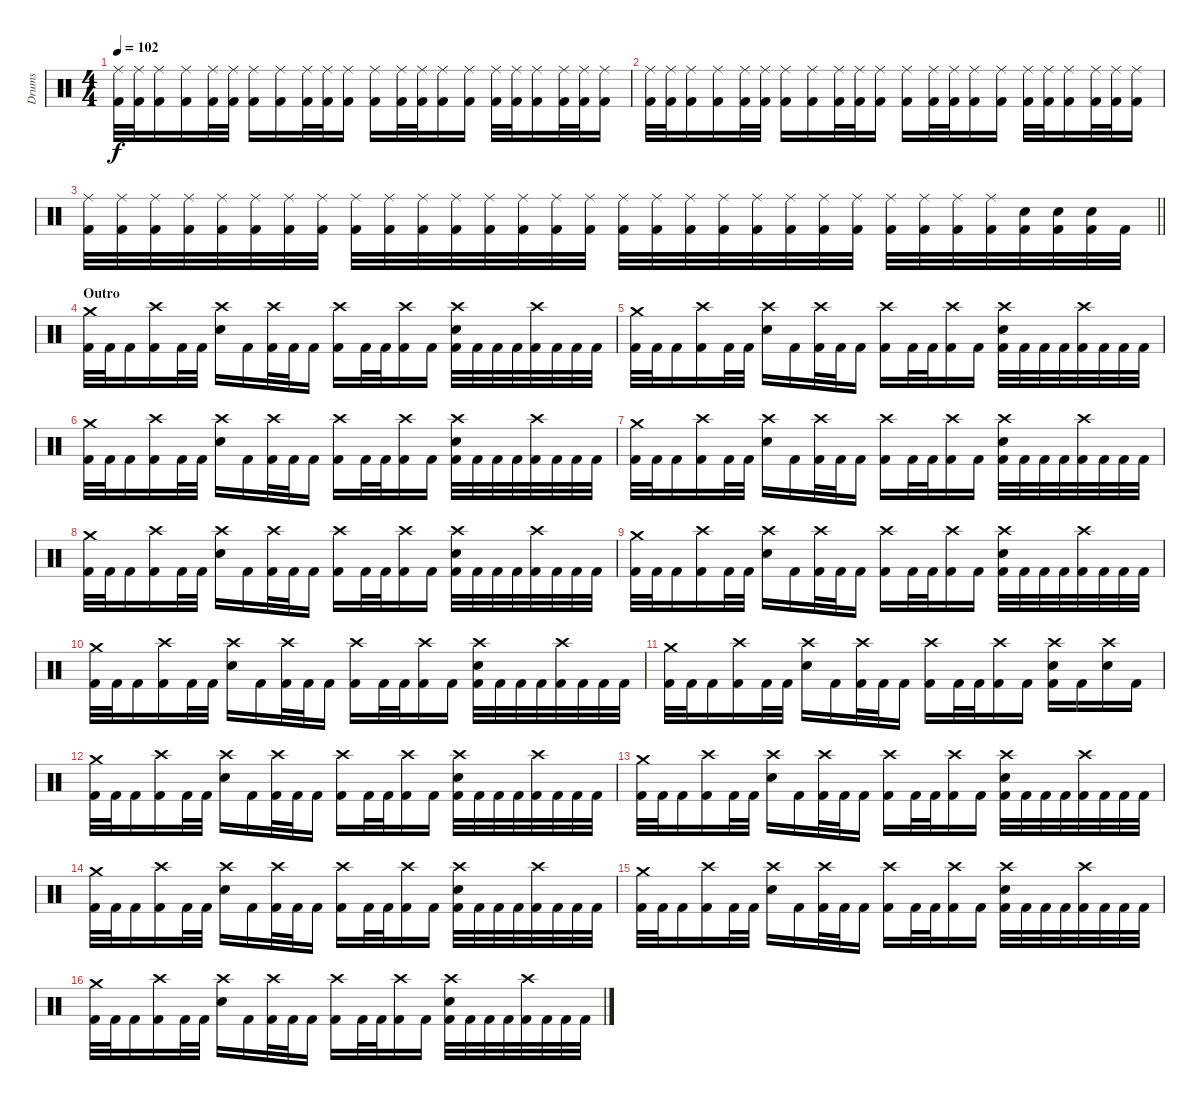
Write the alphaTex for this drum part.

\track ("Drums" "Drums") {instrument percussion}
\staff {score}
\articulation defaults
\ts (4 4)
\tempo 102
\clef neutral
\ks c
("Ride (middle)" "Kick (hit) 2").32{dy f} ("Ride (middle)" "Kick (hit) 2").32 ("Ride (middle)" "Kick (hit) 2").16 ("Ride (middle)" "Kick (hit) 2").16 ("Ride (middle)" "Kick (hit) 2").32 ("Ride (middle)" "Kick (hit) 2").32 ("Ride (middle)" "Kick (hit) 2").16 ("Ride (middle)" "Kick (hit) 2").16 ("Ride (middle)" "Kick (hit) 2").32 ("Ride (middle)" "Kick (hit) 2").32 ("Ride (middle)" "Kick (hit) 2").16 ("Ride (middle)" "Kick (hit) 2").16 ("Ride (middle)" "Kick (hit) 2").32 ("Ride (middle)" "Kick (hit) 2").32 ("Ride (middle)" "Kick (hit) 2").16 ("Ride (middle)" "Kick (hit) 2").16 ("Ride (middle)" "Kick (hit) 2").32 ("Ride (middle)" "Kick (hit) 2").32 ("Ride (middle)" "Kick (hit) 2").16 ("Ride (middle)" "Kick (hit) 2").32 ("Ride (middle)" "Kick (hit) 2").32 ("Ride (middle)" "Kick (hit) 2").16 |
("Ride (middle)" "Kick (hit) 2").32 ("Ride (middle)" "Kick (hit) 2").32 ("Ride (middle)" "Kick (hit) 2").16 ("Ride (middle)" "Kick (hit) 2").16 ("Ride (middle)" "Kick (hit) 2").32 ("Ride (middle)" "Kick (hit) 2").32 ("Ride (middle)" "Kick (hit) 2").16 ("Ride (middle)" "Kick (hit) 2").16 ("Ride (middle)" "Kick (hit) 2").32 ("Ride (middle)" "Kick (hit) 2").32 ("Ride (middle)" "Kick (hit) 2").16 ("Ride (middle)" "Kick (hit) 2").16 ("Ride (middle)" "Kick (hit) 2").32 ("Ride (middle)" "Kick (hit) 2").32 ("Ride (middle)" "Kick (hit) 2").16 ("Ride (middle)" "Kick (hit) 2").16 ("Ride (middle)" "Kick (hit) 2").32 ("Ride (middle)" "Kick (hit) 2").32 ("Ride (middle)" "Kick (hit) 2").16 ("Ride (middle)" "Kick (hit) 2").32 ("Ride (middle)" "Kick (hit) 2").32 ("Ride (middle)" "Kick (hit) 2").16 |
\barLineRight lightlight
("Ride (middle)" "Kick (hit) 2").32 ("Ride (middle)" "Kick (hit) 2").32 ("Ride (middle)" "Kick (hit) 2").32 ("Ride (middle)" "Kick (hit) 2").32 ("Ride (middle)" "Kick (hit) 2").32 ("Ride (middle)" "Kick (hit) 2").32 ("Ride (middle)" "Kick (hit) 2").32 ("Ride (middle)" "Kick (hit) 2").32 ("Ride (middle)" "Kick (hit) 2").32 ("Ride (middle)" "Kick (hit) 2").32 ("Ride (middle)" "Kick (hit) 2").32 ("Ride (middle)" "Kick (hit) 2").32 ("Ride (middle)" "Kick (hit) 2").32 ("Ride (middle)" "Kick (hit) 2").32 ("Ride (middle)" "Kick (hit) 2").32 ("Ride (middle)" "Kick (hit) 2").32 ("Ride (middle)" "Kick (hit) 2").32 ("Ride (middle)" "Kick (hit) 2").32 ("Ride (middle)" "Kick (hit) 2").32 ("Ride (middle)" "Kick (hit) 2").32 ("Ride (middle)" "Kick (hit) 2").32 ("Ride (middle)" "Kick (hit) 2").32 ("Ride (middle)" "Kick (hit) 2").32 ("Ride (middle)" "Kick (hit) 2").32 ("Ride (middle)" "Kick (hit) 2").32 ("Ride (middle)" "Kick (hit) 2").32 ("Ride (middle)" "Kick (hit) 2").32 ("Ride (middle)" "Kick (hit) 2").32 ("Snare (hit) 2" "Kick (hit) 2").32 ("Snare (hit) 2" "Kick (hit) 2").32 ("Snare (hit) 2" "Kick (hit) 2").32 "Kick (hit) 2".32 |
\section ("" "Outro")
("Crash medium (hit)" "Kick (hit) 2").32 "Kick (hit) 2".32 "Kick (hit) 2".16 ("Crash high (hit)" "Kick (hit) 2").16 "Kick (hit) 2".32 "Kick (hit) 2".32 ("Crash high (hit)" "Snare (hit) 2").16 "Kick (hit) 2".16 ("Crash high (hit)" "Kick (hit) 2").32 "Kick (hit) 2".32 "Kick (hit) 2".16 ("Crash high (hit)" "Kick (hit) 2").16 "Kick (hit) 2".32 "Kick (hit) 2".32 ("Crash high (hit)" "Kick (hit) 2").16 "Kick (hit) 2".16 ("Crash high (hit)" "Snare (hit) 2" "Kick (hit) 2").32 "Kick (hit) 2".32 "Kick (hit) 2".32 "Kick (hit) 2".32 ("Crash high (hit)" "Kick (hit) 2").32 "Kick (hit) 2".32 "Kick (hit) 2".32 "Kick (hit) 2".32 |
("Crash medium (hit)" "Kick (hit) 2").32 "Kick (hit) 2".32 "Kick (hit) 2".16 ("Crash high (hit)" "Kick (hit) 2").16 "Kick (hit) 2".32 "Kick (hit) 2".32 ("Crash high (hit)" "Snare (hit) 2").16 "Kick (hit) 2".16 ("Crash high (hit)" "Kick (hit) 2").32 "Kick (hit) 2".32 "Kick (hit) 2".16 ("Crash high (hit)" "Kick (hit) 2").16 "Kick (hit) 2".32 "Kick (hit) 2".32 ("Crash high (hit)" "Kick (hit) 2").16 "Kick (hit) 2".16 ("Crash high (hit)" "Snare (hit) 2" "Kick (hit) 2").32 "Kick (hit) 2".32 "Kick (hit) 2".32 "Kick (hit) 2".32 ("Crash high (hit)" "Kick (hit) 2").32 "Kick (hit) 2".32 "Kick (hit) 2".32 "Kick (hit) 2".32 |
("Crash medium (hit)" "Kick (hit) 2").32 "Kick (hit) 2".32 "Kick (hit) 2".16 ("Crash high (hit)" "Kick (hit) 2").16 "Kick (hit) 2".32 "Kick (hit) 2".32 ("Crash high (hit)" "Snare (hit) 2").16 "Kick (hit) 2".16 ("Crash high (hit)" "Kick (hit) 2").32 "Kick (hit) 2".32 "Kick (hit) 2".16 ("Crash high (hit)" "Kick (hit) 2").16 "Kick (hit) 2".32 "Kick (hit) 2".32 ("Crash high (hit)" "Kick (hit) 2").16 "Kick (hit) 2".16 ("Crash high (hit)" "Snare (hit) 2" "Kick (hit) 2").32 "Kick (hit) 2".32 "Kick (hit) 2".32 "Kick (hit) 2".32 ("Crash high (hit)" "Kick (hit) 2").32 "Kick (hit) 2".32 "Kick (hit) 2".32 "Kick (hit) 2".32 |
("Crash medium (hit)" "Kick (hit) 2").32 "Kick (hit) 2".32 "Kick (hit) 2".16 ("Crash high (hit)" "Kick (hit) 2").16 "Kick (hit) 2".32 "Kick (hit) 2".32 ("Crash high (hit)" "Snare (hit) 2").16 "Kick (hit) 2".16 ("Crash high (hit)" "Kick (hit) 2").32 "Kick (hit) 2".32 "Kick (hit) 2".16 ("Crash high (hit)" "Kick (hit) 2").16 "Kick (hit) 2".32 "Kick (hit) 2".32 ("Crash high (hit)" "Kick (hit) 2").16 "Kick (hit) 2".16 ("Crash high (hit)" "Snare (hit) 2" "Kick (hit) 2").32 "Kick (hit) 2".32 "Kick (hit) 2".32 "Kick (hit) 2".32 ("Crash high (hit)" "Kick (hit) 2").32 "Kick (hit) 2".32 "Kick (hit) 2".32 "Kick (hit) 2".32 |
("Crash medium (hit)" "Kick (hit) 2").32 "Kick (hit) 2".32 "Kick (hit) 2".16 ("Crash high (hit)" "Kick (hit) 2").16 "Kick (hit) 2".32 "Kick (hit) 2".32 ("Crash high (hit)" "Snare (hit) 2").16 "Kick (hit) 2".16 ("Crash high (hit)" "Kick (hit) 2").32 "Kick (hit) 2".32 "Kick (hit) 2".16 ("Crash high (hit)" "Kick (hit) 2").16 "Kick (hit) 2".32 "Kick (hit) 2".32 ("Crash high (hit)" "Kick (hit) 2").16 "Kick (hit) 2".16 ("Crash high (hit)" "Snare (hit) 2" "Kick (hit) 2").32 "Kick (hit) 2".32 "Kick (hit) 2".32 "Kick (hit) 2".32 ("Crash high (hit)" "Kick (hit) 2").32 "Kick (hit) 2".32 "Kick (hit) 2".32 "Kick (hit) 2".32 |
("Crash medium (hit)" "Kick (hit) 2").32 "Kick (hit) 2".32 "Kick (hit) 2".16 ("Crash high (hit)" "Kick (hit) 2").16 "Kick (hit) 2".32 "Kick (hit) 2".32 ("Crash high (hit)" "Snare (hit) 2").16 "Kick (hit) 2".16 ("Crash high (hit)" "Kick (hit) 2").32 "Kick (hit) 2".32 "Kick (hit) 2".16 ("Crash high (hit)" "Kick (hit) 2").16 "Kick (hit) 2".32 "Kick (hit) 2".32 ("Crash high (hit)" "Kick (hit) 2").16 "Kick (hit) 2".16 ("Crash high (hit)" "Snare (hit) 2" "Kick (hit) 2").32 "Kick (hit) 2".32 "Kick (hit) 2".32 "Kick (hit) 2".32 ("Crash high (hit)" "Kick (hit) 2").32 "Kick (hit) 2".32 "Kick (hit) 2".32 "Kick (hit) 2".32 |
("Crash medium (hit)" "Kick (hit) 2").32 "Kick (hit) 2".32 "Kick (hit) 2".16 ("Crash high (hit)" "Kick (hit) 2").16 "Kick (hit) 2".32 "Kick (hit) 2".32 ("Crash high (hit)" "Snare (hit) 2").16 "Kick (hit) 2".16 ("Crash high (hit)" "Kick (hit) 2").32 "Kick (hit) 2".32 "Kick (hit) 2".16 ("Crash high (hit)" "Kick (hit) 2").16 "Kick (hit) 2".32 "Kick (hit) 2".32 ("Crash high (hit)" "Kick (hit) 2").16 "Kick (hit) 2".16 ("Crash high (hit)" "Snare (hit) 2" "Kick (hit) 2").32 "Kick (hit) 2".32 "Kick (hit) 2".32 "Kick (hit) 2".32 ("Crash high (hit)" "Kick (hit) 2").32 "Kick (hit) 2".32 "Kick (hit) 2".32 "Kick (hit) 2".32 |
("Crash medium (hit)" "Kick (hit) 2").32 "Kick (hit) 2".32 "Kick (hit) 2".16 ("Crash high (hit)" "Kick (hit) 2").16 "Kick (hit) 2".32 "Kick (hit) 2".32 ("Crash high (hit)" "Snare (hit) 2").16 "Kick (hit) 2".16 ("Crash high (hit)" "Kick (hit) 2").32 "Kick (hit) 2".32 "Kick (hit) 2".16 ("Crash high (hit)" "Kick (hit) 2").16 "Kick (hit) 2".32 "Kick (hit) 2".32 ("Crash high (hit)" "Kick (hit) 2").16 "Kick (hit) 2".16 ("Crash high (hit)" "Snare (hit) 2" "Kick (hit) 2").16 "Kick (hit) 2".16 ("Crash high (hit)" "Snare (hit) 2").16 "Kick (hit) 2".16 |
("Crash medium (hit)" "Kick (hit) 2").32 "Kick (hit) 2".32 "Kick (hit) 2".16 ("Crash high (hit)" "Kick (hit) 2").16 "Kick (hit) 2".32 "Kick (hit) 2".32 ("Crash high (hit)" "Snare (hit) 2").16 "Kick (hit) 2".16 ("Crash high (hit)" "Kick (hit) 2").32 "Kick (hit) 2".32 "Kick (hit) 2".16 ("Crash high (hit)" "Kick (hit) 2").16 "Kick (hit) 2".32 "Kick (hit) 2".32 ("Crash high (hit)" "Kick (hit) 2").16 "Kick (hit) 2".16 ("Crash high (hit)" "Snare (hit) 2" "Kick (hit) 2").32 "Kick (hit) 2".32 "Kick (hit) 2".32 "Kick (hit) 2".32 ("Crash high (hit)" "Kick (hit) 2").32 "Kick (hit) 2".32 "Kick (hit) 2".32 "Kick (hit) 2".32 |
("Crash medium (hit)" "Kick (hit) 2").32 "Kick (hit) 2".32 "Kick (hit) 2".16 ("Crash high (hit)" "Kick (hit) 2").16 "Kick (hit) 2".32 "Kick (hit) 2".32 ("Crash high (hit)" "Snare (hit) 2").16 "Kick (hit) 2".16 ("Crash high (hit)" "Kick (hit) 2").32 "Kick (hit) 2".32 "Kick (hit) 2".16 ("Crash high (hit)" "Kick (hit) 2").16 "Kick (hit) 2".32 "Kick (hit) 2".32 ("Crash high (hit)" "Kick (hit) 2").16 "Kick (hit) 2".16 ("Crash high (hit)" "Snare (hit) 2" "Kick (hit) 2").32 "Kick (hit) 2".32 "Kick (hit) 2".32 "Kick (hit) 2".32 ("Crash high (hit)" "Kick (hit) 2").32 "Kick (hit) 2".32 "Kick (hit) 2".32 "Kick (hit) 2".32 |
("Crash medium (hit)" "Kick (hit) 2").32 "Kick (hit) 2".32 "Kick (hit) 2".16 ("Crash high (hit)" "Kick (hit) 2").16 "Kick (hit) 2".32 "Kick (hit) 2".32 ("Crash high (hit)" "Snare (hit) 2").16 "Kick (hit) 2".16 ("Crash high (hit)" "Kick (hit) 2").32 "Kick (hit) 2".32 "Kick (hit) 2".16 ("Crash high (hit)" "Kick (hit) 2").16 "Kick (hit) 2".32 "Kick (hit) 2".32 ("Crash high (hit)" "Kick (hit) 2").16 "Kick (hit) 2".16 ("Crash high (hit)" "Snare (hit) 2" "Kick (hit) 2").32 "Kick (hit) 2".32 "Kick (hit) 2".32 "Kick (hit) 2".32 ("Crash high (hit)" "Kick (hit) 2").32 "Kick (hit) 2".32 "Kick (hit) 2".32 "Kick (hit) 2".32 |
("Crash medium (hit)" "Kick (hit) 2").32 "Kick (hit) 2".32 "Kick (hit) 2".16 ("Crash high (hit)" "Kick (hit) 2").16 "Kick (hit) 2".32 "Kick (hit) 2".32 ("Crash high (hit)" "Snare (hit) 2").16 "Kick (hit) 2".16 ("Crash high (hit)" "Kick (hit) 2").32 "Kick (hit) 2".32 "Kick (hit) 2".16 ("Crash high (hit)" "Kick (hit) 2").16 "Kick (hit) 2".32 "Kick (hit) 2".32 ("Crash high (hit)" "Kick (hit) 2").16 "Kick (hit) 2".16 ("Crash high (hit)" "Snare (hit) 2" "Kick (hit) 2").32 "Kick (hit) 2".32 "Kick (hit) 2".32 "Kick (hit) 2".32 ("Crash high (hit)" "Kick (hit) 2").32 "Kick (hit) 2".32 "Kick (hit) 2".32 "Kick (hit) 2".32 |
("Crash medium (hit)" "Kick (hit) 2").32 "Kick (hit) 2".32 "Kick (hit) 2".16 ("Crash high (hit)" "Kick (hit) 2").16 "Kick (hit) 2".32 "Kick (hit) 2".32 ("Crash high (hit)" "Snare (hit) 2").16 "Kick (hit) 2".16 ("Crash high (hit)" "Kick (hit) 2").32 "Kick (hit) 2".32 "Kick (hit) 2".16 ("Crash high (hit)" "Kick (hit) 2").16 "Kick (hit) 2".32 "Kick (hit) 2".32 ("Crash high (hit)" "Kick (hit) 2").16 "Kick (hit) 2".16 ("Crash high (hit)" "Snare (hit) 2" "Kick (hit) 2").32 "Kick (hit) 2".32 "Kick (hit) 2".32 "Kick (hit) 2".32 ("Crash high (hit)" "Kick (hit) 2").32 "Kick (hit) 2".32 "Kick (hit) 2".32 "Kick (hit) 2".32
